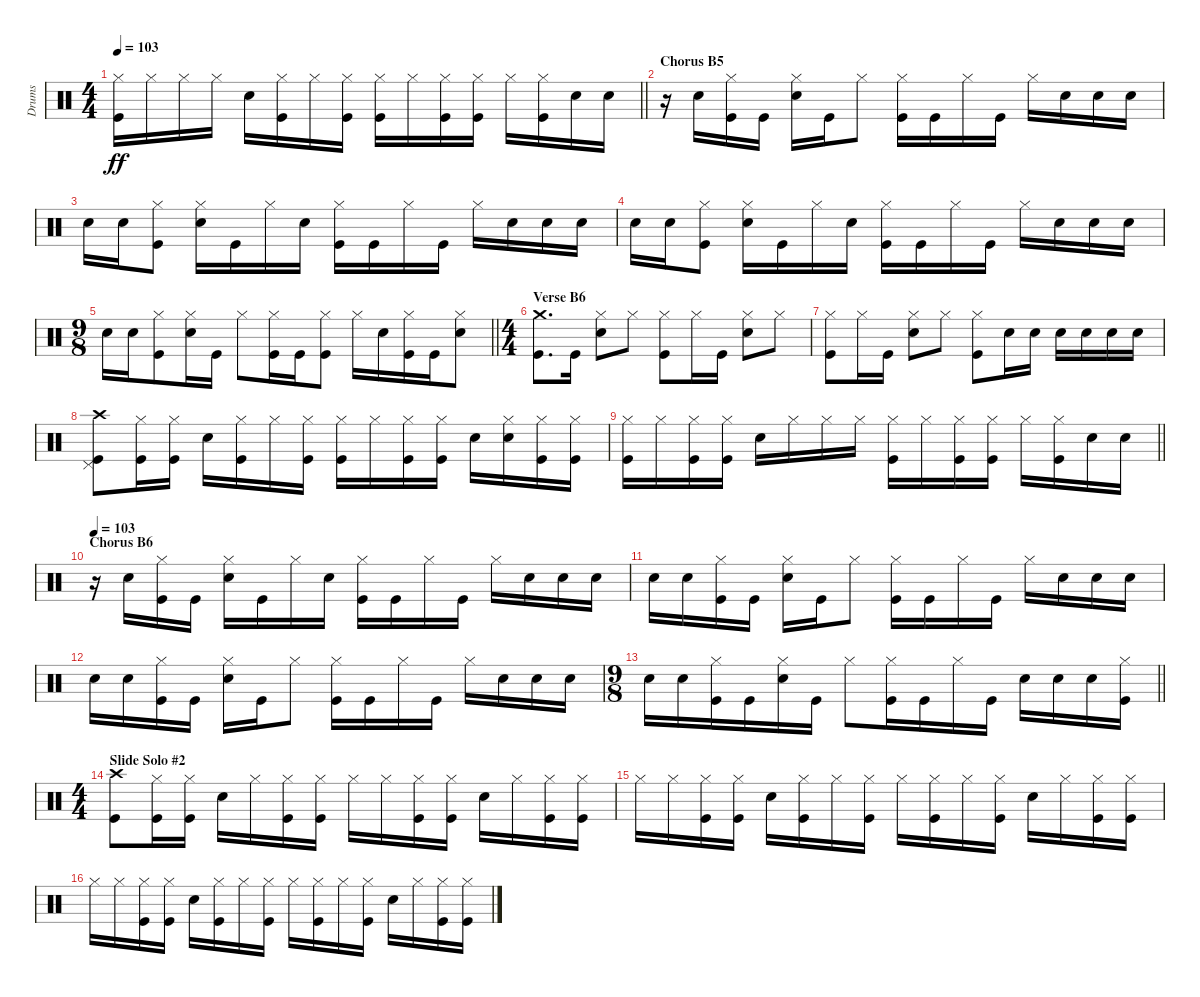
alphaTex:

\track ("Drums" "Drums") {instrument percussion}
\staff {score}
\articulation defaults
\ts (4 4)
\tempo 103
\clef neutral
\barLineRight lightlight
\ks c
("Hi-Hat (closed)" "Kick (hit)").16{dy ff} "Hi-Hat (closed)".16 "Hi-Hat (closed)".16 "Hi-Hat (closed)".16 "Electric Snare (hit)".16 ("Hi-Hat (closed)" "Kick (hit)").16 "Hi-Hat (closed)".16 ("Hi-Hat (closed)" "Kick (hit)").16 ("Hi-Hat (closed)" "Kick (hit)").16 "Hi-Hat (closed)".16 ("Hi-Hat (closed)" "Kick (hit)").16 ("Hi-Hat (closed)" "Kick (hit)").16 "Hi-Hat (closed)".16 ("Hi-Hat (closed)" "Kick (hit)").16 "Electric Snare (hit)".16 "Electric Snare (hit)".16 |
\section ("" "Chorus B5")
r.16 "Electric Snare (hit)".16 ("Hi-Hat (closed)" "Kick (hit)").16 "Kick (hit)".16 ("Hi-Hat (closed)" "Electric Snare (hit)").16 "Kick (hit)".16 "Hi-Hat (closed)".8 ("Hi-Hat (closed)" "Kick (hit)").16 "Kick (hit)".16 "Hi-Hat (closed)".16 "Kick (hit)".16 "Hi-Hat (closed)".16 "Electric Snare (hit)".16 "Electric Snare (hit)".16 "Electric Snare (hit)".16 |
"Electric Snare (hit)".16 "Electric Snare (hit)".16 ("Hi-Hat (closed)" "Kick (hit)").8 ("Hi-Hat (closed)" "Electric Snare (hit)").16 "Kick (hit)".16 "Hi-Hat (closed)".16 "Electric Snare (hit)".16 ("Hi-Hat (closed)" "Kick (hit)").16 "Kick (hit)".16 "Hi-Hat (closed)".16 "Kick (hit)".16 "Hi-Hat (closed)".16 "Electric Snare (hit)".16 "Electric Snare (hit)".16 "Electric Snare (hit)".16 |
"Electric Snare (hit)".16 "Electric Snare (hit)".16 ("Hi-Hat (closed)" "Kick (hit)").8 ("Hi-Hat (closed)" "Electric Snare (hit)").16 "Kick (hit)".16 "Hi-Hat (closed)".16 "Electric Snare (hit)".16 ("Hi-Hat (closed)" "Kick (hit)").16 "Kick (hit)".16 "Hi-Hat (closed)".16 "Kick (hit)".16 "Hi-Hat (closed)".16 "Electric Snare (hit)".16 "Electric Snare (hit)".16 "Electric Snare (hit)".16 |
\ts (9 8)
\barLineRight lightlight "Electric Snare (hit)".16 "Electric Snare (hit)".16
("Hi-Hat (closed)" "Kick (hit)").8 ("Hi-Hat (closed)" "Electric Snare (hit)").16 "Kick (hit)".16 "Hi-Hat (closed)".8 ("Hi-Hat (closed)" "Kick (hit)").16 "Kick (hit)".16 ("Hi-Hat (closed)" "Kick (hit)").8 "Hi-Hat (closed)".16 "Electric Snare (hit)".16 ("Hi-Hat (closed)" "Kick (hit)").16 "Kick (hit)".16 ("Hi-Hat (closed)" "Electric Snare (hit)").8 |
\ts (4 4)
\section ("" "Verse B6")
("Crash medium (hit)" "Kick (hit)").8{d} "Kick (hit)".16 ("Hi-Hat (closed)" "Electric Snare (hit)").8 "Hi-Hat (closed)".8 ("Hi-Hat (closed)" "Kick (hit)").8 "Hi-Hat (closed)".16 "Kick (hit)".16 ("Hi-Hat (closed)" "Electric Snare (hit)").8 "Hi-Hat (closed)".8 |
("Hi-Hat (closed)" "Kick (hit)").8 "Hi-Hat (closed)".16 "Kick (hit)".16 ("Hi-Hat (closed)" "Electric Snare (hit)").8 "Hi-Hat (closed)".8 ("Hi-Hat (closed)" "Kick (hit)").8 "Electric Snare (hit)".16 "Electric Snare (hit)".16 "Electric Snare (hit)".16 "Electric Snare (hit)".16 "Electric Snare (hit)".16 "Electric Snare (hit)".16 |
("Pedal Hi-Hat (hit)" "Crash high (hit)" "Kick (hit)").8 ("Hi-Hat (closed)" "Kick (hit)").16 ("Hi-Hat (closed)" "Kick (hit)").16 "Electric Snare (hit)".16 ("Hi-Hat (closed)" "Kick (hit)").16 "Hi-Hat (closed)".16 ("Hi-Hat (closed)" "Kick (hit)").16 ("Hi-Hat (closed)" "Kick (hit)").16 "Hi-Hat (closed)".16 ("Hi-Hat (closed)" "Kick (hit)").16 ("Hi-Hat (closed)" "Kick (hit)").16 "Electric Snare (hit)".16 ("Hi-Hat (closed)" "Electric Snare (hit)").16 ("Hi-Hat (closed)" "Kick (hit)").16 ("Hi-Hat (closed)" "Kick (hit)").16 |
\barLineRight lightlight
("Hi-Hat (closed)" "Kick (hit)").16 "Hi-Hat (closed)".16 ("Hi-Hat (closed)" "Kick (hit)").16 ("Hi-Hat (closed)" "Kick (hit)").16 "Electric Snare (hit)".16 "Hi-Hat (closed)".16 "Hi-Hat (closed)".16 "Hi-Hat (closed)".16 ("Hi-Hat (closed)" "Kick (hit)").16 "Hi-Hat (closed)".16 ("Hi-Hat (closed)" "Kick (hit)").16 ("Hi-Hat (closed)" "Kick (hit)").16 "Hi-Hat (closed)".16 ("Hi-Hat (closed)" "Kick (hit)").16 "Electric Snare (hit)".16 "Electric Snare (hit)".16 |
\section ("" "Chorus B6")
\tempo 103
r.16 "Electric Snare (hit)".16 ("Hi-Hat (closed)" "Kick (hit)").16 "Kick (hit)".16 ("Hi-Hat (closed)" "Electric Snare (hit)").16 "Kick (hit)".16 "Hi-Hat (closed)".16 "Electric Snare (hit)".16 ("Hi-Hat (closed)" "Kick (hit)").16 "Kick (hit)".16 "Hi-Hat (closed)".16 "Kick (hit)".16 "Hi-Hat (closed)".16 "Electric Snare (hit)".16 "Electric Snare (hit)".16 "Electric Snare (hit)".16 |
"Electric Snare (hit)".16 "Electric Snare (hit)".16 ("Hi-Hat (closed)" "Kick (hit)").16 "Kick (hit)".16 ("Hi-Hat (closed)" "Electric Snare (hit)").16 "Kick (hit)".16 "Hi-Hat (closed)".8 ("Hi-Hat (closed)" "Kick (hit)").16 "Kick (hit)".16 "Hi-Hat (closed)".16 "Kick (hit)".16 "Hi-Hat (closed)".16 "Electric Snare (hit)".16 "Electric Snare (hit)".16 "Electric Snare (hit)".16 |
"Electric Snare (hit)".16 "Electric Snare (hit)".16 ("Hi-Hat (closed)" "Kick (hit)").16 "Kick (hit)".16 ("Hi-Hat (closed)" "Electric Snare (hit)").16 "Kick (hit)".16 "Hi-Hat (closed)".8 ("Hi-Hat (closed)" "Kick (hit)").16 "Kick (hit)".16 "Hi-Hat (closed)".16 "Kick (hit)".16 "Hi-Hat (closed)".16 "Electric Snare (hit)".16 "Electric Snare (hit)".16 "Electric Snare (hit)".16 |
\ts (9 8)
\barLineRight lightlight "Electric Snare (hit)".16 "Electric Snare (hit)".16
("Hi-Hat (closed)" "Kick (hit)").16 "Kick (hit)".16 ("Hi-Hat (closed)" "Electric Snare (hit)").16 "Kick (hit)".16 "Hi-Hat (closed)".8 ("Hi-Hat (closed)" "Kick (hit)").16 "Kick (hit)".16 "Hi-Hat (closed)".16 "Kick (hit)".16 "Electric Snare (hit)".16 "Electric Snare (hit)".16 "Electric Snare (hit)".16 ("Hi-Hat (closed)" "Kick (hit)").16 |
\ts (4 4)
\section ("" "Slide Solo #2")
("Crash high (hit)" "Kick (hit)").8 ("Hi-Hat (closed)" "Kick (hit)").16 ("Hi-Hat (closed)" "Kick (hit)").16 "Electric Snare (hit)".16 "Hi-Hat (closed)".16 ("Hi-Hat (closed)" "Kick (hit)").16 ("Hi-Hat (closed)" "Kick (hit)").16 "Hi-Hat (closed)".16 "Hi-Hat (closed)".16 ("Hi-Hat (closed)" "Kick (hit)").16 ("Hi-Hat (closed)" "Kick (hit)").16 "Electric Snare (hit)".16 "Hi-Hat (closed)".16 ("Hi-Hat (closed)" "Kick (hit)").16 ("Hi-Hat (closed)" "Kick (hit)").16 |
"Hi-Hat (closed)".16 "Hi-Hat (closed)".16 ("Hi-Hat (closed)" "Kick (hit)").16 ("Hi-Hat (closed)" "Kick (hit)").16 "Electric Snare (hit)".16 ("Hi-Hat (closed)" "Kick (hit)").16 "Hi-Hat (closed)".16 ("Hi-Hat (closed)" "Kick (hit)").16 "Hi-Hat (closed)".16 ("Hi-Hat (closed)" "Kick (hit)").16 "Hi-Hat (closed)".16 ("Hi-Hat (closed)" "Kick (hit)").16 "Electric Snare (hit)".16 "Hi-Hat (closed)".16 ("Hi-Hat (closed)" "Kick (hit)").16 ("Hi-Hat (closed)" "Kick (hit)").16 |
"Hi-Hat (closed)".16 "Hi-Hat (closed)".16 ("Hi-Hat (closed)" "Kick (hit)").16 ("Hi-Hat (closed)" "Kick (hit)").16 "Electric Snare (hit)".16 ("Hi-Hat (closed)" "Kick (hit)").16 "Hi-Hat (closed)".16 ("Hi-Hat (closed)" "Kick (hit)").16 "Hi-Hat (closed)".16 ("Hi-Hat (closed)" "Kick (hit)").16 "Hi-Hat (closed)".16 ("Hi-Hat (closed)" "Kick (hit)").16 "Electric Snare (hit)".16 "Hi-Hat (closed)".16 ("Hi-Hat (closed)" "Kick (hit)").16 ("Hi-Hat (closed)" "Kick (hit)").16
